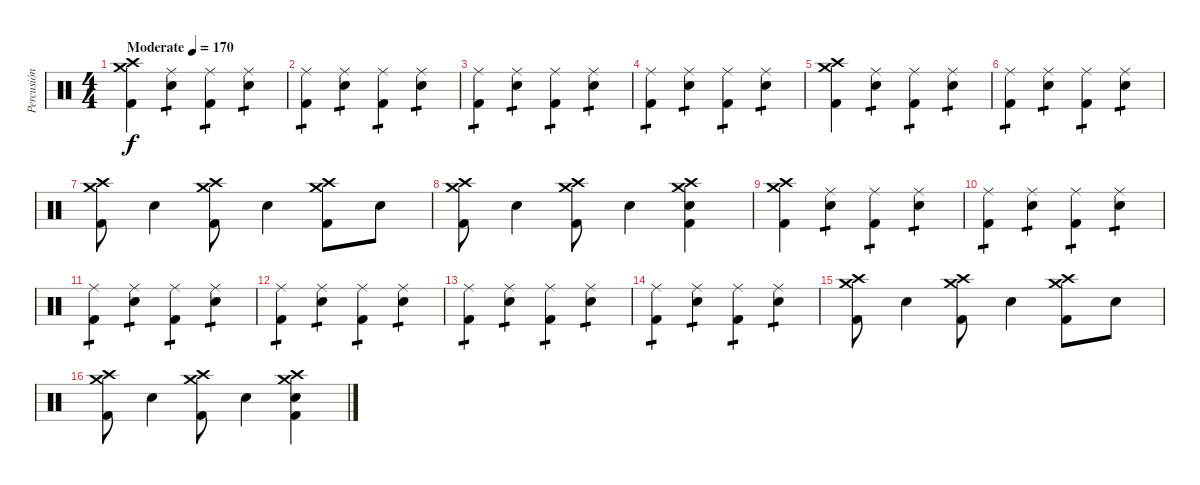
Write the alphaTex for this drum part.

\track ("Percusión" "Percusión") {instrument percussion}
\staff {score}
\articulation defaults
\ts (4 4)
\tempo (170 "Moderate")
\clef neutral
\ks c
("Crash high (hit)" "Crash medium (hit)" "Kick (hit) 2").4{dy f} ("Ride (middle)" "Electric Snare (hit)").4{tp 1} ("Ride (middle)" "Kick (hit) 2").4{tp 1} ("Ride (middle)" "Electric Snare (hit)").4{tp 1} |
("Ride (middle)" "Kick (hit) 2").4{tp 1} ("Ride (middle)" "Electric Snare (hit)").4{tp 1} ("Ride (middle)" "Kick (hit) 2").4{tp 1} ("Ride (middle)" "Electric Snare (hit)").4{tp 1} |
("Ride (middle)" "Kick (hit) 2").4{tp 1} ("Ride (middle)" "Electric Snare (hit)").4{tp 1} ("Ride (middle)" "Kick (hit) 2").4{tp 1} ("Ride (middle)" "Electric Snare (hit)").4{tp 1} |
("Ride (middle)" "Kick (hit) 2").4{tp 1} ("Ride (middle)" "Electric Snare (hit)").4{tp 1} ("Ride (middle)" "Kick (hit) 2").4{tp 1} ("Ride (middle)" "Electric Snare (hit)").4{tp 1} |
("Crash high (hit)" "Crash medium (hit)" "Kick (hit) 2").4 ("Ride (middle)" "Electric Snare (hit)").4{tp 1} ("Ride (middle)" "Kick (hit) 2").4{tp 1} ("Ride (middle)" "Electric Snare (hit)").4{tp 1} |
("Ride (middle)" "Kick (hit) 2").4{tp 1} ("Ride (middle)" "Electric Snare (hit)").4{tp 1} ("Ride (middle)" "Kick (hit) 2").4{tp 1} ("Ride (middle)" "Electric Snare (hit)").4{tp 1} |
("Crash high (hit)" "Crash medium (hit)" "Kick (hit) 2").8 "Electric Snare (hit)".4 ("Crash high (hit)" "Crash medium (hit)" "Kick (hit) 2").8 "Electric Snare (hit)".4 ("Crash high (hit)" "Crash medium (hit)" "Kick (hit) 2").8 "Electric Snare (hit)".8 |
("Crash high (hit)" "Crash medium (hit)" "Kick (hit) 2").8 "Electric Snare (hit)".4 ("Crash high (hit)" "Crash medium (hit)" "Kick (hit) 2").8 "Electric Snare (hit)".4 ("Crash high (hit)" "Crash medium (hit)" "Electric Snare (hit)" "Kick (hit) 2").4 |
("Crash high (hit)" "Crash medium (hit)" "Kick (hit) 2").4 ("Ride (middle)" "Electric Snare (hit)").4{tp 1} ("Ride (middle)" "Kick (hit) 2").4{tp 1} ("Ride (middle)" "Electric Snare (hit)").4{tp 1} |
("Ride (middle)" "Kick (hit) 2").4{tp 1} ("Ride (middle)" "Electric Snare (hit)").4{tp 1} ("Ride (middle)" "Kick (hit) 2").4{tp 1} ("Ride (middle)" "Electric Snare (hit)").4{tp 1} |
("Ride (middle)" "Kick (hit) 2").4{tp 1} ("Ride (middle)" "Electric Snare (hit)").4{tp 1} ("Ride (middle)" "Kick (hit) 2").4{tp 1} ("Ride (middle)" "Electric Snare (hit)").4{tp 1} |
("Ride (middle)" "Kick (hit) 2").4{tp 1} ("Ride (middle)" "Electric Snare (hit)").4{tp 1} ("Ride (middle)" "Kick (hit) 2").4{tp 1} ("Ride (middle)" "Electric Snare (hit)").4{tp 1} |
("Ride (middle)" "Kick (hit) 2").4{tp 1} ("Ride (middle)" "Electric Snare (hit)").4{tp 1} ("Ride (middle)" "Kick (hit) 2").4{tp 1} ("Ride (middle)" "Electric Snare (hit)").4{tp 1} |
("Ride (middle)" "Kick (hit) 2").4{tp 1} ("Ride (middle)" "Electric Snare (hit)").4{tp 1} ("Ride (middle)" "Kick (hit) 2").4{tp 1} ("Ride (middle)" "Electric Snare (hit)").4{tp 1} |
("Crash high (hit)" "Crash medium (hit)" "Kick (hit) 2").8 "Electric Snare (hit)".4 ("Crash high (hit)" "Crash medium (hit)" "Kick (hit) 2").8 "Electric Snare (hit)".4 ("Crash high (hit)" "Crash medium (hit)" "Kick (hit) 2").8 "Electric Snare (hit)".8 |
("Crash high (hit)" "Crash medium (hit)" "Kick (hit) 2").8 "Electric Snare (hit)".4 ("Crash high (hit)" "Crash medium (hit)" "Kick (hit) 2").8 "Electric Snare (hit)".4 ("Crash high (hit)" "Crash medium (hit)" "Electric Snare (hit)" "Kick (hit) 2").4
